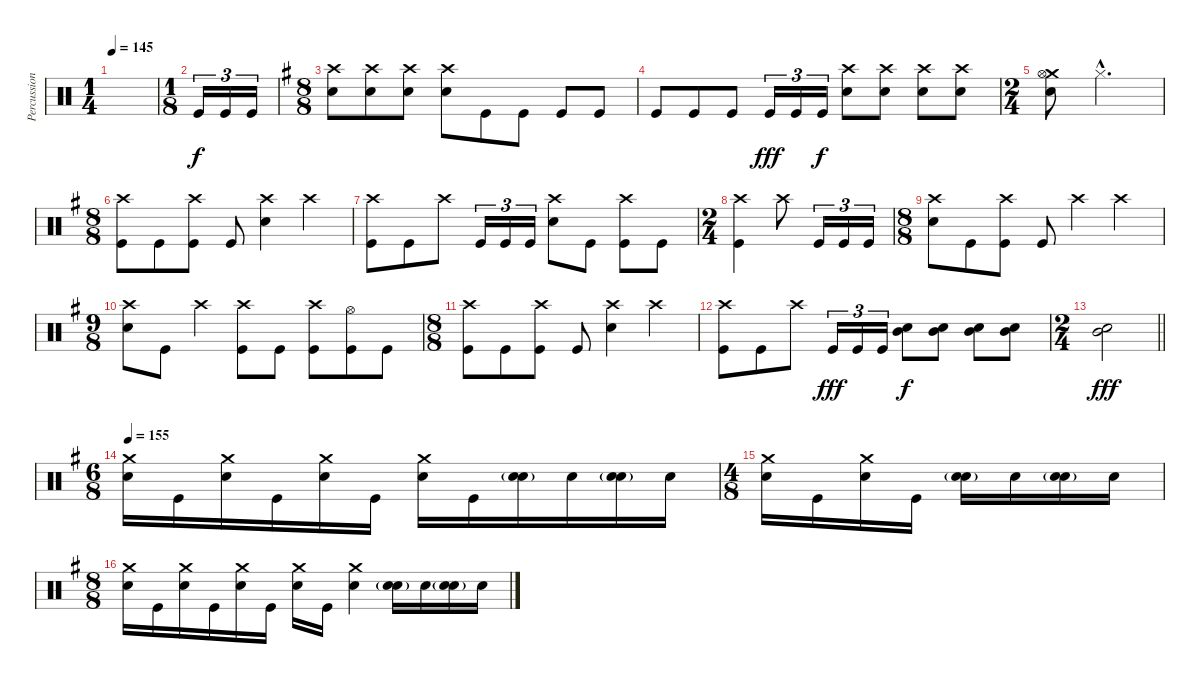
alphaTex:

\track ("Percussion" "Percussion") {instrument percussion}
\staff {score}
\articulation defaults
\ts (1 4)
\tempo 145
\clef neutral
\ks c
|
\ts (1 8)
"Kick (hit)".16{tu (3 2)} "Kick (hit)".16{tu (3 2)} "Kick (hit)".16{tu (3 2)} |
\ts (8 8)
\ks g
("Crash high (hit)" "Electric Snare (hit)").8 ("Crash high (hit)" "Electric Snare (hit)").8 ("Crash high (hit)" "Electric Snare (hit)").8 ("Crash high (hit)" "Electric Snare (hit)").8 "Kick (hit)".8 "Kick (hit)".8 "Kick (hit)".8 "Kick (hit)".8 |
"Kick (hit)".8 "Kick (hit)".8 "Kick (hit)".8 "Kick (hit)".16{tu (3 2) dy fff} "Kick (hit)".16{tu (3 2)} "Kick (hit)".16{tu (3 2) dy f} ("Crash high (hit)" "Electric Snare (hit)").8 ("Crash high (hit)" "Electric Snare (hit)").8 ("Crash high (hit)" "Electric Snare (hit)").8 ("Crash high (hit)" "Electric Snare (hit)").8 |
\ts (2 4)
("Crash medium (hit)" "Hi-Hat (open)" "Electric Snare (hit)").8 "Hi-Hat (closed)"{hac}.4{d} |
\ts (8 8)
("Crash high (hit)" "Kick (hit)").8 "Kick (hit)".8 ("Crash high (hit)" "Kick (hit)").8 "Kick (hit)".8 ("Crash high (hit)" "Electric Snare (hit)").4 "Crash high (hit)".4 |
("Crash high (hit)" "Kick (hit)").8 "Kick (hit)".8 "Crash high (hit)".8 "Kick (hit)".16{tu (3 2)} "Kick (hit)".16{tu (3 2)} "Kick (hit)".16{tu (3 2)} ("Crash high (hit)" "Electric Snare (hit)").8 "Kick (hit)".8 ("Crash high (hit)" "Kick (hit)").8 "Kick (hit)".8 |
\ts (2 4)
("Crash high (hit)" "Kick (hit)").4 "Crash high (hit)".8 "Kick (hit)".16{tu (3 2)} "Kick (hit)".16{tu (3 2)} "Kick (hit)".16{tu (3 2)} |
\ts (8 8)
("Crash high (hit)" "Electric Snare (hit)").8 "Kick (hit)".8 ("Crash high (hit)" "Kick (hit)").8 "Kick (hit)".8 "Crash high (hit)".4 "Crash high (hit)".4 |
\ts (9 8)
("Crash high (hit)" "Electric Snare (hit)").8 "Kick (hit)".8 "Crash high (hit)".4 ("Crash high (hit)" "Kick (hit)").8 "Kick (hit)".8 ("Crash high (hit)" "Kick (hit)").8 ("Hi-Hat (open)" "Kick (hit)").8 "Kick (hit)".8 |
\ts (8 8)
("Crash high (hit)" "Kick (hit)").8 "Kick (hit)".8 ("Crash high (hit)" "Kick (hit)").8 "Kick (hit)".8 ("Crash high (hit)" "Electric Snare (hit)").4 "Crash high (hit)".4 |
("Crash high (hit)" "Kick (hit)").8 "Kick (hit)".8 "Crash high (hit)".8 "Kick (hit)".16{tu (3 2) dy fff} "Kick (hit)".16{tu (3 2)} "Kick (hit)".16{tu (3 2)} ("Mid Tom (hit)" "Electric Snare (hit)").8{dy f} ("Mid Tom (hit)" "Electric Snare (hit)").8 ("Mid Tom (hit)" "Electric Snare (hit)").8 ("Mid Tom (hit)" "Electric Snare (hit)").8 |
\ts (2 4)
\barLineRight lightlight
("Mid Tom (hit)" "Electric Snare (hit)").2{dy fff} |
\ts (6 8)
\tempo 155
("Crash medium (hit)" "Electric Snare (hit)").16 "Kick (hit)".16 ("Crash medium (hit)" "Electric Snare (hit)").16 "Kick (hit)".16 ("Crash medium (hit)" "Electric Snare (hit)").16 "Kick (hit)".16 ("Crash medium (hit)" "Electric Snare (hit)").16 "Kick (hit)".16 ("Snare (hit) 2"{g} "Electric Snare (hit)").16 "Electric Snare (hit)".16 ("Snare (hit) 2"{g} "Electric Snare (hit)").16 "Electric Snare (hit)".16 |
\ts (4 8)
("Crash medium (hit)" "Electric Snare (hit)").16 "Kick (hit)".16 ("Crash medium (hit)" "Electric Snare (hit)").16 "Kick (hit)".16 ("Snare (hit) 2"{g} "Electric Snare (hit)").16 "Electric Snare (hit)".16 ("Snare (hit) 2"{g} "Electric Snare (hit)").16 "Electric Snare (hit)".16 |
\ts (8 8)
("Crash medium (hit)" "Electric Snare (hit)").16 "Kick (hit)".16 ("Crash medium (hit)" "Electric Snare (hit)").16 "Kick (hit)".16 ("Crash medium (hit)" "Electric Snare (hit)").16 "Kick (hit)".16 ("Crash medium (hit)" "Electric Snare (hit)").16 "Kick (hit)".16 ("Crash medium (hit)" "Electric Snare (hit)").4 ("Snare (hit) 2"{g} "Electric Snare (hit)").16 "Electric Snare (hit)".16 ("Snare (hit) 2"{g} "Electric Snare (hit)").16 "Electric Snare (hit)".16
